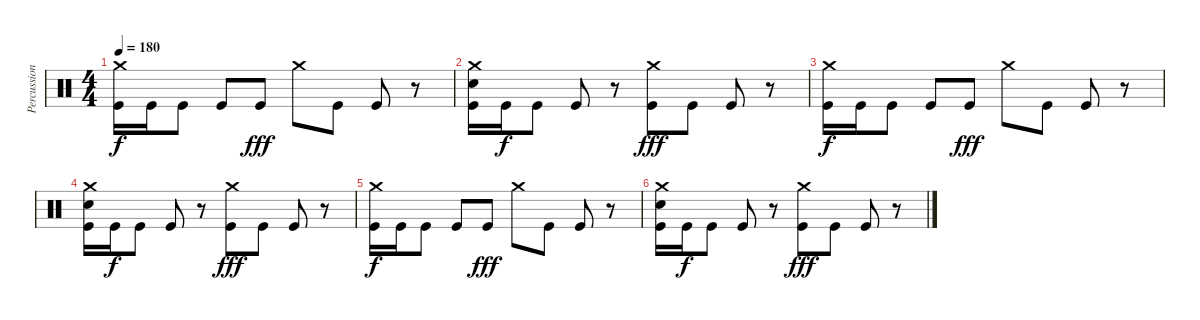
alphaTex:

\track ("Percussion" "Percussion") {instrument percussion}
\staff {score}
\articulation defaults
\ts (4 4)
\tempo 180
\clef neutral
\ks c
("Crash medium (hit)" "Kick (hit)").16{dy f} "Kick (hit)".16 "Kick (hit)".8 "Kick (hit)".8 "Kick (hit)".8{dy fff} "Crash medium (hit)".8 "Kick (hit)".8 "Kick (hit)".8 r.8 |
("Crash medium (hit)" "Electric Snare (hit)" "Kick (hit)").16 "Kick (hit)".16{dy f} "Kick (hit)".8 "Kick (hit)".8 r.8 ("Crash medium (hit)" "Kick (hit)").8{dy fff} "Kick (hit)".8 "Kick (hit)".8 r.8 |
("Crash medium (hit)" "Kick (hit)").16{dy f} "Kick (hit)".16 "Kick (hit)".8 "Kick (hit)".8 "Kick (hit)".8{dy fff} "Crash medium (hit)".8 "Kick (hit)".8 "Kick (hit)".8 r.8 |
("Crash medium (hit)" "Electric Snare (hit)" "Kick (hit)").16 "Kick (hit)".16{dy f} "Kick (hit)".8 "Kick (hit)".8 r.8 ("Crash medium (hit)" "Kick (hit)").8{dy fff} "Kick (hit)".8 "Kick (hit)".8 r.8 |
("Crash medium (hit)" "Kick (hit)").16{dy f} "Kick (hit)".16 "Kick (hit)".8 "Kick (hit)".8 "Kick (hit)".8{dy fff} "Crash medium (hit)".8 "Kick (hit)".8 "Kick (hit)".8 r.8 |
("Crash medium (hit)" "Electric Snare (hit)" "Kick (hit)").16 "Kick (hit)".16{dy f} "Kick (hit)".8 "Kick (hit)".8 r.8 ("Crash medium (hit)" "Kick (hit)").8{dy fff} "Kick (hit)".8 "Kick (hit)".8 r.8
